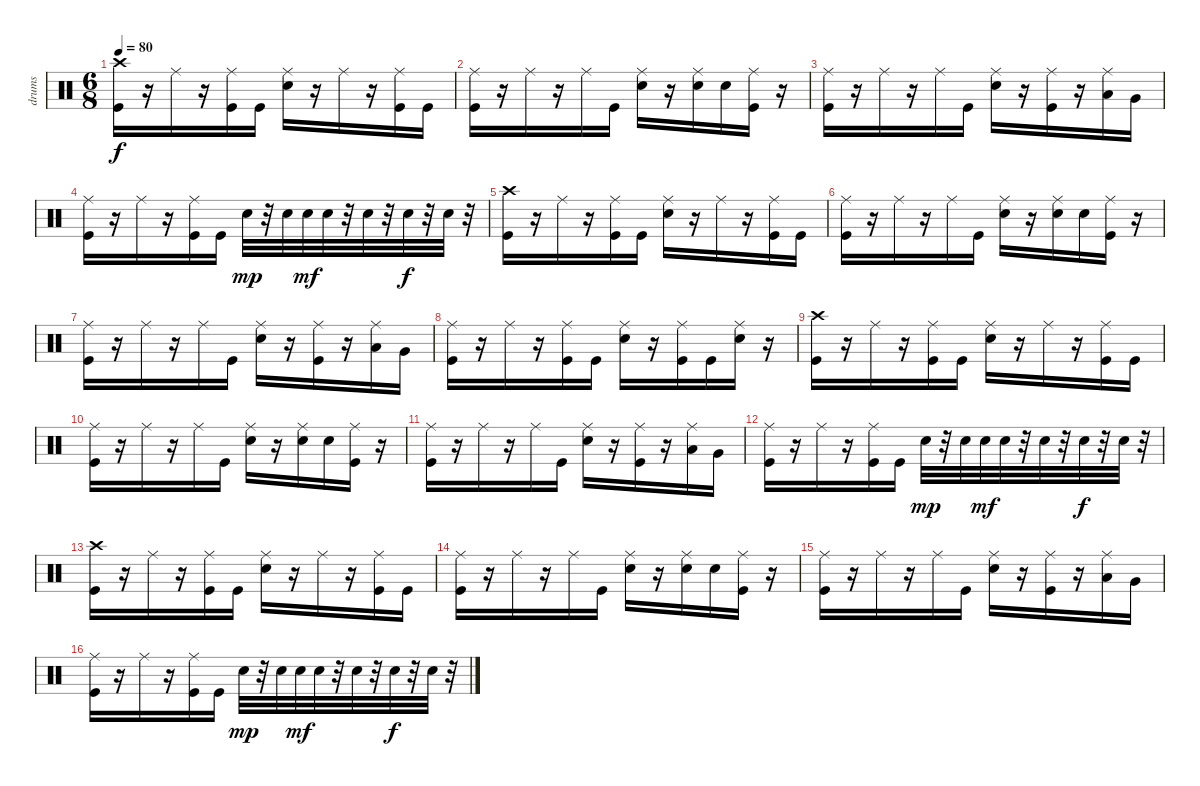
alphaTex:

\track ("drums" "drums") {instrument percussion}
\staff {score}
\articulation defaults
\ts (6 8)
\tempo 80
\clef neutral
\ks c
("Kick (hit)" "Crash high (hit)").16{dy f} r.16 "Ride (middle)".16 r.16 ("Kick (hit)" "Ride (middle)").16 "Kick (hit)".16 ("Electric Snare (hit)" "Ride (middle)").16 r.16 "Ride (middle)".16 r.16 ("Kick (hit)" "Ride (middle)").16 "Kick (hit)".16 |
("Ride (middle)" "Kick (hit)").16 r.16 "Ride (middle)".16 r.16 "Ride (middle)".16 "Kick (hit)".16 ("Electric Snare (hit)" "Ride (middle)").16 r.16 ("Ride (middle)" "Electric Snare (hit)").16 "Electric Snare (hit)".16 ("Kick (hit)" "Ride (middle)").16 r.16 |
("Ride (middle)" "Kick (hit)").16 r.16 "Ride (middle)".16 r.16 "Ride (middle)".16 "Kick (hit)".16 ("Electric Snare (hit)" "Ride (middle)").16 r.16 ("Kick (hit)" "Ride (middle)").16 r.16 ("Low Tom (hit)" "Ride (middle)").16 "Very Low Tom (hit)".16 |
("Kick (hit)" "Ride (middle)").16 r.16 "Ride (middle)".16 r.16 ("Kick (hit)" "Ride (middle)").16 "Kick (hit)".16 "Electric Snare (hit)".32{dy mp} r.32 "Electric Snare (hit)".32 "Electric Snare (hit)".32{dy mf} "Electric Snare (hit)".32 r.32 "Electric Snare (hit)".32 r.32 "Electric Snare (hit)".32{dy f} r.32 "Electric Snare (hit)".32 r.32 |
("Kick (hit)" "Crash high (hit)").16 r.16 "Ride (middle)".16 r.16 ("Ride (middle)" "Kick (hit)").16 "Kick (hit)".16 ("Electric Snare (hit)" "Ride (middle)").16 r.16 "Ride (middle)".16 r.16 ("Kick (hit)" "Ride (middle)").16 "Kick (hit)".16 |
("Ride (middle)" "Kick (hit)").16 r.16 "Ride (middle)".16 r.16 "Ride (middle)".16 "Kick (hit)".16 ("Ride (middle)" "Electric Snare (hit)").16 r.16 ("Ride (middle)" "Electric Snare (hit)").16 "Electric Snare (hit)".16 ("Ride (middle)" "Kick (hit)").16 r.16 |
("Ride (middle)" "Kick (hit)").16 r.16 "Ride (middle)".16 r.16 "Ride (middle)".16 "Kick (hit)".16 ("Electric Snare (hit)" "Ride (middle)").16 r.16 ("Kick (hit)" "Ride (middle)").16 r.16 ("Low Tom (hit)" "Ride (middle)").16 "Very Low Tom (hit)".16 |
("Ride (middle)" "Kick (hit)").16 r.16 "Ride (middle)".16 r.16 ("Ride (middle)" "Kick (hit)").16 "Kick (hit)".16 ("Ride (middle)" "Electric Snare (hit)").16 r.16 ("Ride (middle)" "Kick (hit)").16 "Kick (hit)".16 ("Ride (middle)" "Electric Snare (hit)").16 r.16 |
("Kick (hit)" "Crash high (hit)").16 r.16 "Ride (middle)".16 r.16 ("Kick (hit)" "Ride (middle)").16 "Kick (hit)".16 ("Ride (middle)" "Electric Snare (hit)").16 r.16 "Ride (middle)".16 r.16 ("Ride (middle)" "Kick (hit)").16 "Kick (hit)".16 |
("Ride (middle)" "Kick (hit)").16 r.16 "Ride (middle)".16 r.16 "Ride (middle)".16 "Kick (hit)".16 ("Ride (middle)" "Electric Snare (hit)").16 r.16 ("Ride (middle)" "Electric Snare (hit)").16 "Electric Snare (hit)".16 ("Kick (hit)" "Ride (middle)").16 r.16 |
("Ride (middle)" "Kick (hit)").16 r.16 "Ride (middle)".16 r.16 "Ride (middle)".16 "Kick (hit)".16 ("Electric Snare (hit)" "Ride (middle)").16 r.16 ("Kick (hit)" "Ride (middle)").16 r.16 ("Low Tom (hit)" "Ride (middle)").16 "Very Low Tom (hit)".16 |
("Ride (middle)" "Kick (hit)").16 r.16 "Ride (middle)".16 r.16 ("Kick (hit)" "Ride (middle)").16 "Kick (hit)".16 "Electric Snare (hit)".32{dy mp} r.32 "Electric Snare (hit)".32 "Electric Snare (hit)".32{dy mf} "Electric Snare (hit)".32 r.32 "Electric Snare (hit)".32 r.32 "Electric Snare (hit)".32{dy f} r.32 "Electric Snare (hit)".32 r.32 |
("Kick (hit)" "Crash high (hit)").16 r.16 "Ride (middle)".16 r.16 ("Kick (hit)" "Ride (middle)").16 "Kick (hit)".16 ("Electric Snare (hit)" "Ride (middle)").16 r.16 "Ride (middle)".16 r.16 ("Kick (hit)" "Ride (middle)").16 "Kick (hit)".16 |
("Kick (hit)" "Ride (middle)").16 r.16 "Ride (middle)".16 r.16 "Ride (middle)".16 "Kick (hit)".16 ("Ride (middle)" "Electric Snare (hit)").16 r.16 ("Ride (middle)" "Electric Snare (hit)").16 "Electric Snare (hit)".16 ("Kick (hit)" "Ride (middle)").16 r.16 |
("Ride (middle)" "Kick (hit)").16 r.16 "Ride (middle)".16 r.16 "Ride (middle)".16 "Kick (hit)".16 ("Electric Snare (hit)" "Ride (middle)").16 r.16 ("Kick (hit)" "Ride (middle)").16 r.16 ("Low Tom (hit)" "Ride (middle)").16 "Very Low Tom (hit)".16 |
("Ride (middle)" "Kick (hit)").16 r.16 "Ride (middle)".16 r.16 ("Kick (hit)" "Ride (middle)").16 "Kick (hit)".16 "Electric Snare (hit)".32{dy mp} r.32 "Electric Snare (hit)".32 "Electric Snare (hit)".32{dy mf} "Electric Snare (hit)".32 r.32 "Electric Snare (hit)".32 r.32 "Electric Snare (hit)".32{dy f} r.32 "Electric Snare (hit)".32 r.32
